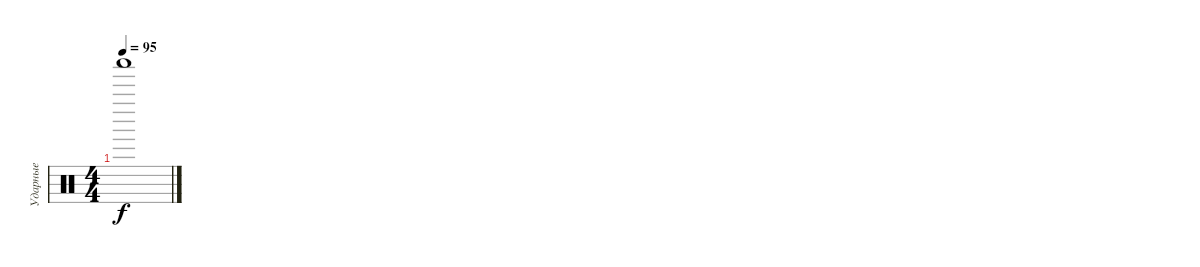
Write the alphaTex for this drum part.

\track ("Ударные" "Ударные") {instrument percussion}
\staff {score}
\articulation defaults
\ts (4 4)
\tempo 95
\clef neutral
\ks c "Shaker (hit)".1{dy f}
